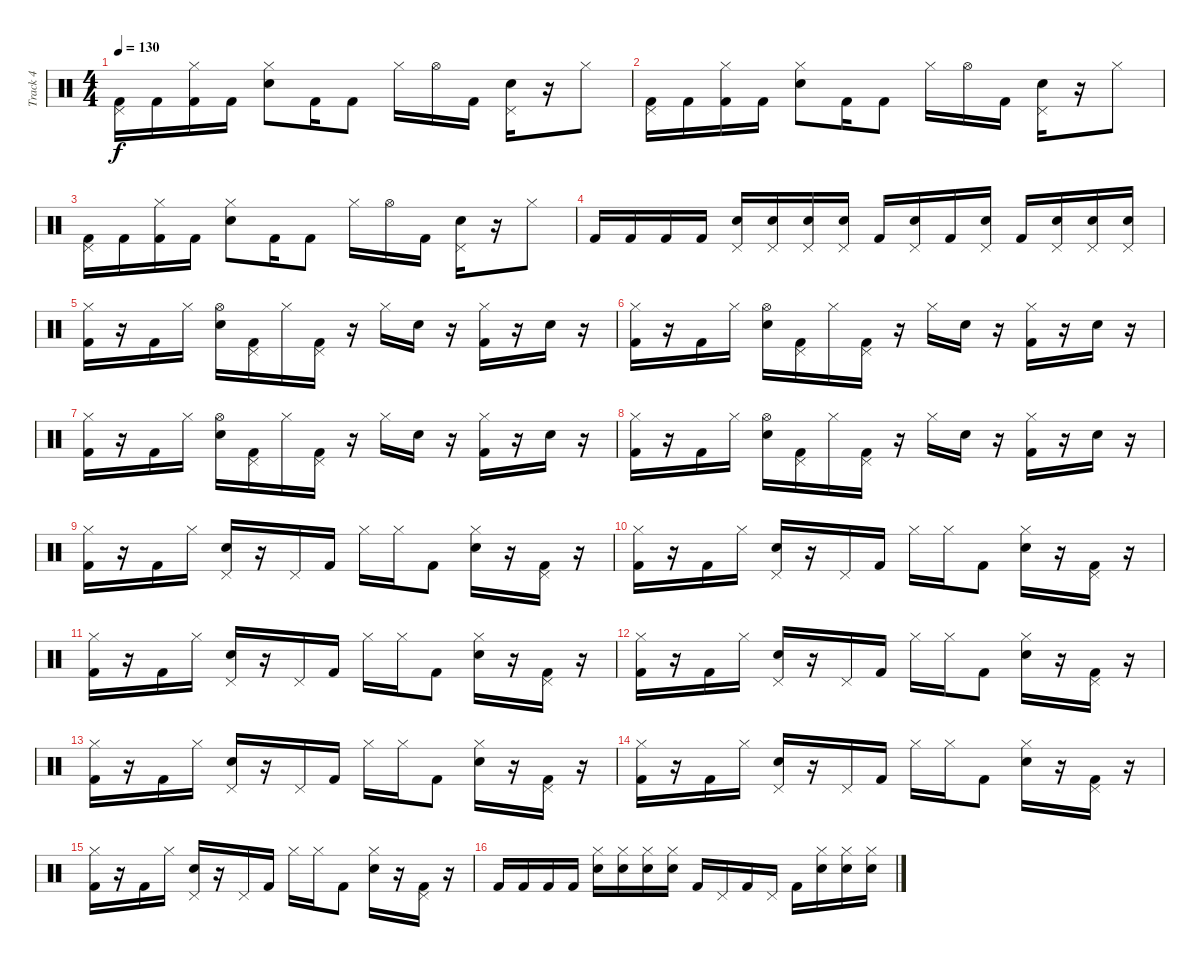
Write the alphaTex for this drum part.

\track ("Track 4" "Track 4") {instrument percussion}
\staff {score}
\articulation defaults
\ts (4 4)
\tempo 130
\clef neutral
\ks c
("Pedal Hi-Hat (hit)" "Kick (hit) 2").16{dy f} "Kick (hit) 2".16 ("Hi-Hat (closed)" "Kick (hit) 2").16 "Kick (hit) 2".16 ("Hi-Hat (closed)" "Electric Snare (hit)").8 "Kick (hit) 2".16 "Kick (hit) 2".8 "Hi-Hat (closed)".16 "Hi-Hat (open)".16 "Kick (hit) 2".16 ("Pedal Hi-Hat (hit)" "Electric Snare (hit)").16 r.16 "Hi-Hat (closed)".8 |
("Pedal Hi-Hat (hit)" "Kick (hit) 2").16 "Kick (hit) 2".16 ("Hi-Hat (closed)" "Kick (hit) 2").16 "Kick (hit) 2".16 ("Hi-Hat (closed)" "Electric Snare (hit)").8 "Kick (hit) 2".16 "Kick (hit) 2".8 "Hi-Hat (closed)".16 "Hi-Hat (open)".16 "Kick (hit) 2".16 ("Pedal Hi-Hat (hit)" "Electric Snare (hit)").16 r.16 "Hi-Hat (closed)".8 |
("Pedal Hi-Hat (hit)" "Kick (hit) 2").16 "Kick (hit) 2".16 ("Hi-Hat (closed)" "Kick (hit) 2").16 "Kick (hit) 2".16 ("Hi-Hat (closed)" "Electric Snare (hit)").8 "Kick (hit) 2".16 "Kick (hit) 2".8 "Hi-Hat (closed)".16 "Hi-Hat (open)".16 "Kick (hit) 2".16 ("Pedal Hi-Hat (hit)" "Electric Snare (hit)").16 r.16 "Hi-Hat (closed)".8 |
"Kick (hit) 2".16 "Kick (hit) 2".16 "Kick (hit) 2".16 "Kick (hit) 2".16 ("Pedal Hi-Hat (hit)" "Electric Snare (hit)").16 ("Pedal Hi-Hat (hit)" "Electric Snare (hit)").16 ("Pedal Hi-Hat (hit)" "Electric Snare (hit)").16 ("Pedal Hi-Hat (hit)" "Electric Snare (hit)").16 "Kick (hit) 2".16 ("Pedal Hi-Hat (hit)" "Electric Snare (hit)").16 "Kick (hit) 2".16 ("Pedal Hi-Hat (hit)" "Electric Snare (hit)").16 "Kick (hit) 2".16 ("Pedal Hi-Hat (hit)" "Electric Snare (hit)").16 ("Pedal Hi-Hat (hit)" "Electric Snare (hit)").16 ("Pedal Hi-Hat (hit)" "Electric Snare (hit)").16 |
("Hi-Hat (closed)" "Kick (hit) 2").16 r.16 "Kick (hit) 2".16 "Hi-Hat (closed)".16 ("Hi-Hat (open)" "Electric Snare (hit)").16 ("Pedal Hi-Hat (hit)" "Kick (hit) 2").16 "Hi-Hat (closed)".16 ("Pedal Hi-Hat (hit)" "Kick (hit) 2").16 r.16 "Hi-Hat (closed)".16 "Electric Snare (hit)".16 r.16 ("Hi-Hat (closed)" "Kick (hit) 2").16 r.16 "Electric Snare (hit)".16 r.16 |
("Hi-Hat (closed)" "Kick (hit) 2").16 r.16 "Kick (hit) 2".16 "Hi-Hat (closed)".16 ("Hi-Hat (open)" "Electric Snare (hit)").16 ("Pedal Hi-Hat (hit)" "Kick (hit) 2").16 "Hi-Hat (closed)".16 ("Pedal Hi-Hat (hit)" "Kick (hit) 2").16 r.16 "Hi-Hat (closed)".16 "Electric Snare (hit)".16 r.16 ("Hi-Hat (closed)" "Kick (hit) 2").16 r.16 "Electric Snare (hit)".16 r.16 |
("Hi-Hat (closed)" "Kick (hit) 2").16 r.16 "Kick (hit) 2".16 "Hi-Hat (closed)".16 ("Hi-Hat (open)" "Electric Snare (hit)").16 ("Pedal Hi-Hat (hit)" "Kick (hit) 2").16 "Hi-Hat (closed)".16 ("Pedal Hi-Hat (hit)" "Kick (hit) 2").16 r.16 "Hi-Hat (closed)".16 "Electric Snare (hit)".16 r.16 ("Hi-Hat (closed)" "Kick (hit) 2").16 r.16 "Electric Snare (hit)".16 r.16 |
("Hi-Hat (closed)" "Kick (hit) 2").16 r.16 "Kick (hit) 2".16 "Hi-Hat (closed)".16 ("Hi-Hat (open)" "Electric Snare (hit)").16 ("Pedal Hi-Hat (hit)" "Kick (hit) 2").16 "Hi-Hat (closed)".16 ("Pedal Hi-Hat (hit)" "Kick (hit) 2").16 r.16 "Hi-Hat (closed)".16 "Electric Snare (hit)".16 r.16 ("Hi-Hat (closed)" "Kick (hit) 2").16 r.16 "Electric Snare (hit)".16 r.16 |
("Hi-Hat (closed)" "Kick (hit) 2").16 r.16 "Kick (hit) 2".16 "Hi-Hat (closed)".16 ("Pedal Hi-Hat (hit)" "Electric Snare (hit)").16 r.16 "Pedal Hi-Hat (hit)".16 "Kick (hit) 2".16 "Hi-Hat (closed)".16 "Hi-Hat (closed)".16 "Kick (hit) 2".8 ("Hi-Hat (closed)" "Electric Snare (hit)").16 r.16 ("Pedal Hi-Hat (hit)" "Kick (hit) 2").16 r.16 |
("Hi-Hat (closed)" "Kick (hit) 2").16 r.16 "Kick (hit) 2".16 "Hi-Hat (closed)".16 ("Pedal Hi-Hat (hit)" "Electric Snare (hit)").16 r.16 "Pedal Hi-Hat (hit)".16 "Kick (hit) 2".16 "Hi-Hat (closed)".16 "Hi-Hat (closed)".16 "Kick (hit) 2".8 ("Hi-Hat (closed)" "Electric Snare (hit)").16 r.16 ("Pedal Hi-Hat (hit)" "Kick (hit) 2").16 r.16 |
("Hi-Hat (closed)" "Kick (hit) 2").16 r.16 "Kick (hit) 2".16 "Hi-Hat (closed)".16 ("Pedal Hi-Hat (hit)" "Electric Snare (hit)").16 r.16 "Pedal Hi-Hat (hit)".16 "Kick (hit) 2".16 "Hi-Hat (closed)".16 "Hi-Hat (closed)".16 "Kick (hit) 2".8 ("Hi-Hat (closed)" "Electric Snare (hit)").16 r.16 ("Pedal Hi-Hat (hit)" "Kick (hit) 2").16 r.16 |
("Hi-Hat (closed)" "Kick (hit) 2").16 r.16 "Kick (hit) 2".16 "Hi-Hat (closed)".16 ("Pedal Hi-Hat (hit)" "Electric Snare (hit)").16 r.16 "Pedal Hi-Hat (hit)".16 "Kick (hit) 2".16 "Hi-Hat (closed)".16 "Hi-Hat (closed)".16 "Kick (hit) 2".8 ("Hi-Hat (closed)" "Electric Snare (hit)").16 r.16 ("Pedal Hi-Hat (hit)" "Kick (hit) 2").16 r.16 |
("Hi-Hat (closed)" "Kick (hit) 2").16 r.16 "Kick (hit) 2".16 "Hi-Hat (closed)".16 ("Pedal Hi-Hat (hit)" "Electric Snare (hit)").16 r.16 "Pedal Hi-Hat (hit)".16 "Kick (hit) 2".16 "Hi-Hat (closed)".16 "Hi-Hat (closed)".16 "Kick (hit) 2".8 ("Hi-Hat (closed)" "Electric Snare (hit)").16 r.16 ("Pedal Hi-Hat (hit)" "Kick (hit) 2").16 r.16 |
("Hi-Hat (closed)" "Kick (hit) 2").16 r.16 "Kick (hit) 2".16 "Hi-Hat (closed)".16 ("Pedal Hi-Hat (hit)" "Electric Snare (hit)").16 r.16 "Pedal Hi-Hat (hit)".16 "Kick (hit) 2".16 "Hi-Hat (closed)".16 "Hi-Hat (closed)".16 "Kick (hit) 2".8 ("Hi-Hat (closed)" "Electric Snare (hit)").16 r.16 ("Pedal Hi-Hat (hit)" "Kick (hit) 2").16 r.16 |
("Hi-Hat (closed)" "Kick (hit) 2").16 r.16 "Kick (hit) 2".16 "Hi-Hat (closed)".16 ("Pedal Hi-Hat (hit)" "Electric Snare (hit)").16 r.16 "Pedal Hi-Hat (hit)".16 "Kick (hit) 2".16 "Hi-Hat (closed)".16 "Hi-Hat (closed)".16 "Kick (hit) 2".8 ("Hi-Hat (closed)" "Electric Snare (hit)").16 r.16 ("Pedal Hi-Hat (hit)" "Kick (hit) 2").16 r.16 |
"Kick (hit) 2".16 "Kick (hit) 2".16 "Kick (hit) 2".16 "Kick (hit) 2".16 ("Hi-Hat (closed)" "Electric Snare (hit)").16 ("Hi-Hat (closed)" "Electric Snare (hit)").16 ("Hi-Hat (closed)" "Electric Snare (hit)").16 ("Hi-Hat (closed)" "Electric Snare (hit)").16 "Kick (hit) 2".16 "Pedal Hi-Hat (hit)".16 "Kick (hit) 2".16 "Pedal Hi-Hat (hit)".16 "Kick (hit) 2".16 ("Hi-Hat (closed)" "Electric Snare (hit)").16 ("Hi-Hat (closed)" "Electric Snare (hit)").16 ("Hi-Hat (closed)" "Electric Snare (hit)").16
